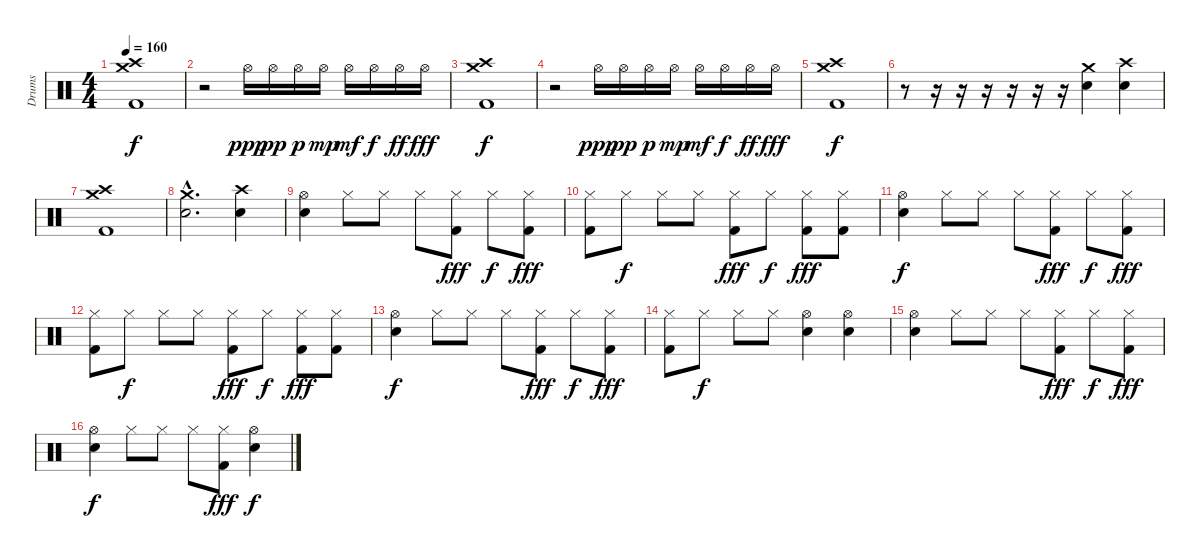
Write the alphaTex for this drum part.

\track ("Drums" "Drums") {instrument percussion}
\staff {score}
\articulation defaults
\ts (4 4)
\tempo 160
\clef neutral
\ks c
("Crash high (hit)" "Crash medium (hit)" "Kick (hit) 2").1{dy f} |
r.2 "Hi-Hat (open)".16{dy ppp} "Hi-Hat (open)".16{dy pp} "Hi-Hat (open)".16{dy p} "Hi-Hat (open)".16{dy mp} "Hi-Hat (open)".16{dy mf} "Hi-Hat (open)".16{dy f} "Hi-Hat (open)".16{dy ff} "Hi-Hat (open)".16{dy fff} |
("Crash high (hit)" "Crash medium (hit)" "Kick (hit) 2").1{dy f} |
r.2 "Hi-Hat (open)".16{dy ppp} "Hi-Hat (open)".16{dy pp} "Hi-Hat (open)".16{dy p} "Hi-Hat (open)".16{dy mp} "Hi-Hat (open)".16{dy mf} "Hi-Hat (open)".16{dy f} "Hi-Hat (open)".16{dy ff} "Hi-Hat (open)".16{dy fff} |
("Crash high (hit)" "Crash medium (hit)" "Kick (hit) 2").1{dy f} |
r.8 r.16 r.16 r.16 r.16 r.16 r.16 ("Electric Snare (hit)" "Crash medium (hit)").4 ("Electric Snare (hit)" "Crash high (hit)").4 |
("Crash high (hit)" "Crash medium (hit)" "Kick (hit) 2").1 |
("Crash medium (hit)"{hac} "Electric Snare (hit)"{hac}).2{d} ("Electric Snare (hit)" "Crash high (hit)").4 |
("Hi-Hat (open)" "Electric Snare (hit)").4 "Hi-Hat (closed)".8 "Hi-Hat (closed)".8 "Hi-Hat (closed)".8 ("Hi-Hat (closed)" "Kick (hit) 2").8{dy fff} "Hi-Hat (closed)".8{dy f} ("Hi-Hat (closed)" "Kick (hit) 2").8{dy fff} |
("Hi-Hat (closed)" "Kick (hit) 2").8 "Hi-Hat (closed)".8{dy f} "Hi-Hat (closed)".8 "Hi-Hat (closed)".8 ("Hi-Hat (closed)" "Kick (hit) 2").8{dy fff} "Hi-Hat (closed)".8{dy f} ("Hi-Hat (closed)" "Kick (hit) 2").8{dy fff} ("Hi-Hat (closed)" "Kick (hit) 2").8 |
("Hi-Hat (open)" "Electric Snare (hit)").4{dy f} "Hi-Hat (closed)".8 "Hi-Hat (closed)".8 "Hi-Hat (closed)".8 ("Hi-Hat (closed)" "Kick (hit) 2").8{dy fff} "Hi-Hat (closed)".8{dy f} ("Hi-Hat (closed)" "Kick (hit) 2").8{dy fff} |
("Hi-Hat (closed)" "Kick (hit) 2").8 "Hi-Hat (closed)".8{dy f} "Hi-Hat (closed)".8 "Hi-Hat (closed)".8 ("Hi-Hat (closed)" "Kick (hit) 2").8{dy fff} "Hi-Hat (closed)".8{dy f} ("Hi-Hat (closed)" "Kick (hit) 2").8{dy fff} ("Hi-Hat (closed)" "Kick (hit) 2").8 |
("Hi-Hat (open)" "Electric Snare (hit)").4{dy f} "Hi-Hat (closed)".8 "Hi-Hat (closed)".8 "Hi-Hat (closed)".8 ("Hi-Hat (closed)" "Kick (hit) 2").8{dy fff} "Hi-Hat (closed)".8{dy f} ("Hi-Hat (closed)" "Kick (hit) 2").8{dy fff} |
("Hi-Hat (closed)" "Kick (hit) 2").8 "Hi-Hat (closed)".8{dy f} "Hi-Hat (closed)".8 "Hi-Hat (closed)".8 ("Hi-Hat (open)" "Electric Snare (hit)").4 ("Hi-Hat (open)" "Electric Snare (hit)").4 |
("Hi-Hat (open)" "Electric Snare (hit)").4 "Hi-Hat (closed)".8 "Hi-Hat (closed)".8 "Hi-Hat (closed)".8 ("Hi-Hat (closed)" "Kick (hit) 2").8{dy fff} "Hi-Hat (closed)".8{dy f} ("Hi-Hat (closed)" "Kick (hit) 2").8{dy fff} |
("Hi-Hat (open)" "Electric Snare (hit)").4{dy f} "Hi-Hat (closed)".8 "Hi-Hat (closed)".8 "Hi-Hat (closed)".8 ("Hi-Hat (closed)" "Kick (hit) 2").8{dy fff} ("Hi-Hat (open)" "Electric Snare (hit)").4{dy f}
